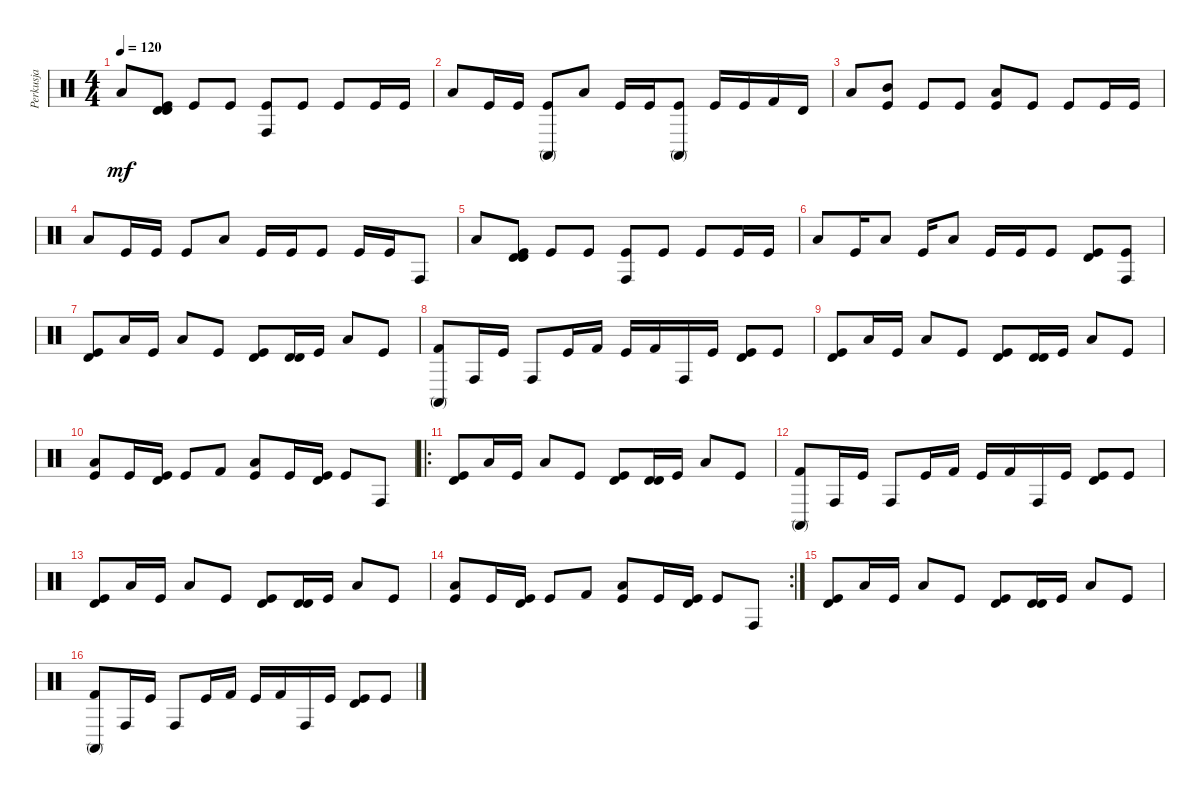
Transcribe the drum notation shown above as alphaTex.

\track ("Perkusja" "Perkusja") {instrument percussion}
\staff {score}
\articulation defaults
\ts (4 4)
\tempo 120
\clef neutral
\ks c "Low Tom (hit)".8{dy mf}
("Kick (hit)" "Timbale high (hit)" "Timbale high (hit)").8 "Kick (hit)".8 "Kick (hit)".8 ("Kick (hit)" "Conga high (hit)").8 "Kick (hit)".8 "Kick (hit)".8 "Kick (hit)".16 "Kick (hit)".16 |
"Low Tom (hit)".8 "Kick (hit)".16 "Kick (hit)".16 ("Kick (hit)" "Conga high (mute)").8 "Low Tom (hit)".8 "Kick (hit)".16 "Kick (hit)".16 ("Kick (hit)" "Conga high (mute)").8 "Kick (hit)".16 "Kick (hit)".16 "Kick (hit) 2".16 "Timbale high (hit)".16 |
"Low Tom (hit)".8 ("Kick (hit)" "Mid Tom (hit)").8 "Kick (hit)".8 "Kick (hit)".8 ("Kick (hit)" "Low Tom (hit)").8 "Kick (hit)".8 "Kick (hit)".8 "Kick (hit)".16 "Kick (hit)".16 |
"Low Tom (hit)".8 "Kick (hit)".16 "Kick (hit)".16 "Kick (hit)".8 "Low Tom (hit)".8 "Kick (hit)".16 "Kick (hit)".16 "Kick (hit)".8 "Kick (hit)".16 "Kick (hit)".16 "Conga high (hit)".8 |
"Low Tom (hit)".8 ("Kick (hit)" "Timbale high (hit)" "Timbale high (hit)").8 "Kick (hit)".8 "Kick (hit)".8 ("Kick (hit)" "Conga high (hit)").8 "Kick (hit)".8 "Kick (hit)".8 "Kick (hit)".16 "Kick (hit)".16 |
"Low Tom (hit)".8 "Kick (hit)".16 "Low Tom (hit)".8 "Kick (hit)".16 "Low Tom (hit)".8 "Kick (hit)".16 "Kick (hit)".16 "Kick (hit)".8 ("Kick (hit)" "Timbale high (hit)").8 ("Kick (hit)" "Conga high (hit)").8 |
("Kick (hit)" "Timbale high (hit)").8 "Low Tom (hit)".16 "Kick (hit)".16 "Low Tom (hit)".8 "Kick (hit)".8 ("Kick (hit)" "Timbale high (hit)").8 ("Timbale high (hit)" "Timbale high (hit)").16 "Kick (hit)".16 "Low Tom (hit)".8 "Kick (hit)".8 |
("Kick (hit) 2" "Conga high (mute)").8 "Conga high (hit)".16 "Kick (hit)".16 "Conga high (hit)".8 "Kick (hit)".16 "Kick (hit) 2".16 "Kick (hit)".16 "Kick (hit) 2".16 "Conga high (hit)".16 "Kick (hit)".16 ("Kick (hit)" "Timbale high (hit)").8 "Kick (hit)".8 |
("Kick (hit)" "Timbale high (hit)").8 "Low Tom (hit)".16 "Kick (hit)".16 "Low Tom (hit)".8 "Kick (hit)".8 ("Kick (hit)" "Timbale high (hit)").8 ("Timbale high (hit)" "Timbale high (hit)").16 "Kick (hit)".16 "Low Tom (hit)".8 "Kick (hit)".8 |
("Low Tom (hit)" "Kick (hit)").8 "Kick (hit)".16 ("Timbale high (hit)" "Kick (hit)").16 "Kick (hit)".8 "Kick (hit) 2".8 ("Low Tom (hit)" "Kick (hit)").8 "Kick (hit)".16 ("Timbale high (hit)" "Kick (hit)").16 "Kick (hit)".8 "Conga high (hit)".8 |
\ro
("Kick (hit)" "Timbale high (hit)").8 "Low Tom (hit)".16 "Kick (hit)".16 "Low Tom (hit)".8 "Kick (hit)".8 ("Kick (hit)" "Timbale high (hit)").8 ("Timbale high (hit)" "Timbale high (hit)").16 "Kick (hit)".16 "Low Tom (hit)".8 "Kick (hit)".8 |
("Kick (hit) 2" "Conga high (mute)").8 "Conga high (hit)".16 "Kick (hit)".16 "Conga high (hit)".8 "Kick (hit)".16 "Kick (hit) 2".16 "Kick (hit)".16 "Kick (hit) 2".16 "Conga high (hit)".16 "Kick (hit)".16 ("Kick (hit)" "Timbale high (hit)").8 "Kick (hit)".8 |
("Kick (hit)" "Timbale high (hit)").8 "Low Tom (hit)".16 "Kick (hit)".16 "Low Tom (hit)".8 "Kick (hit)".8 ("Kick (hit)" "Timbale high (hit)").8 ("Timbale high (hit)" "Timbale high (hit)").16 "Kick (hit)".16 "Low Tom (hit)".8 "Kick (hit)".8 |
\rc 2
("Low Tom (hit)" "Kick (hit)").8 "Kick (hit)".16 ("Timbale high (hit)" "Kick (hit)").16 "Kick (hit)".8 "Kick (hit) 2".8 ("Low Tom (hit)" "Kick (hit)").8 "Kick (hit)".16 ("Timbale high (hit)" "Kick (hit)").16 "Kick (hit)".8 "Conga high (hit)".8 |
("Kick (hit)" "Timbale high (hit)").8 "Low Tom (hit)".16 "Kick (hit)".16 "Low Tom (hit)".8 "Kick (hit)".8 ("Kick (hit)" "Timbale high (hit)").8 ("Timbale high (hit)" "Timbale high (hit)").16 "Kick (hit)".16 "Low Tom (hit)".8 "Kick (hit)".8 |
("Kick (hit) 2" "Conga high (mute)").8 "Conga high (hit)".16 "Kick (hit)".16 "Conga high (hit)".8 "Kick (hit)".16 "Kick (hit) 2".16 "Kick (hit)".16 "Kick (hit) 2".16 "Conga high (hit)".16 "Kick (hit)".16 ("Kick (hit)" "Timbale high (hit)").8 "Kick (hit)".8
